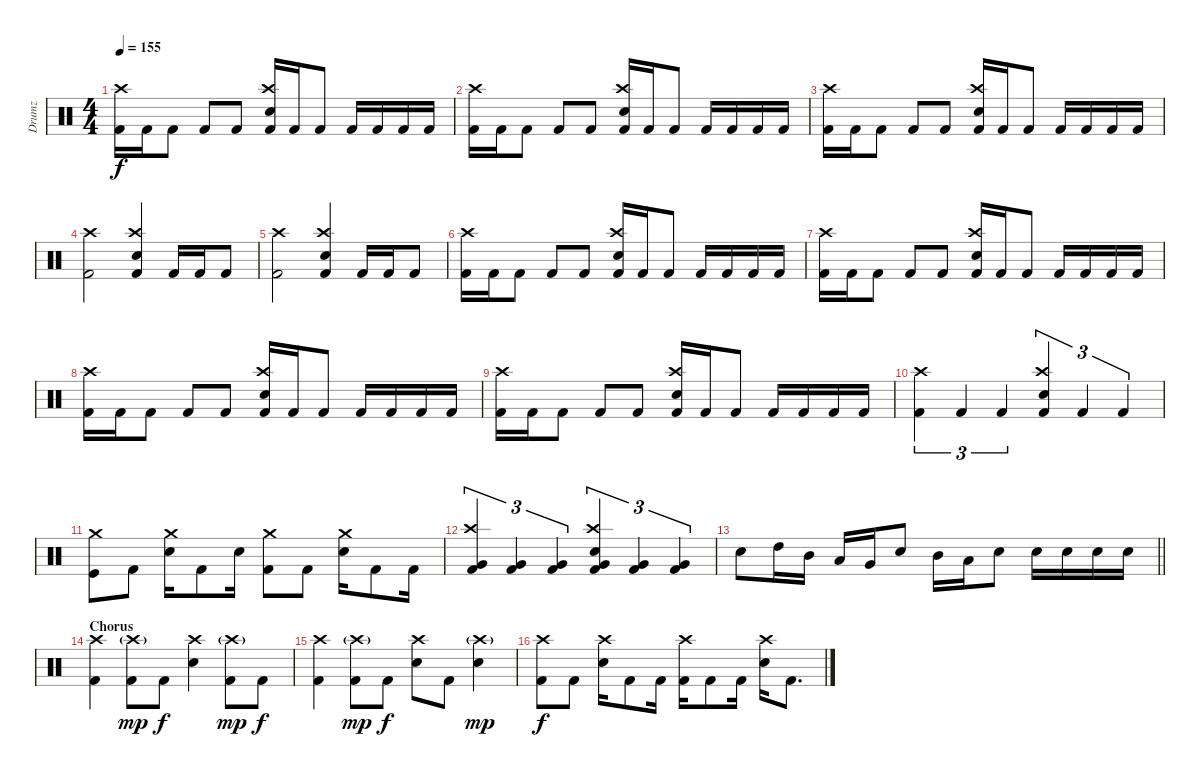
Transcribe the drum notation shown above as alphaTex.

\track ("Drumz" "Drumz") {instrument percussion}
\staff {score}
\articulation defaults
\ts (4 4)
\tempo 155
\clef neutral
\ks c
("Kick (hit) 2" "Crash high (hit)").16{dy f} "Kick (hit) 2".16 "Kick (hit) 2".8 "Kick (hit) 2".8 "Kick (hit) 2".8 ("Kick (hit) 2" "Crash high (hit)" "Electric Snare (hit)").16 "Kick (hit) 2".16 "Kick (hit) 2".8 "Kick (hit) 2".16 "Kick (hit) 2".16 "Kick (hit) 2".16 "Kick (hit) 2".16 |
("Kick (hit) 2" "Crash high (hit)").16 "Kick (hit) 2".16 "Kick (hit) 2".8 "Kick (hit) 2".8 "Kick (hit) 2".8 ("Kick (hit) 2" "Crash high (hit)" "Electric Snare (hit)").16 "Kick (hit) 2".16 "Kick (hit) 2".8 "Kick (hit) 2".16 "Kick (hit) 2".16 "Kick (hit) 2".16 "Kick (hit) 2".16 |
("Kick (hit) 2" "Crash high (hit)").16 "Kick (hit) 2".16 "Kick (hit) 2".8 "Kick (hit) 2".8 "Kick (hit) 2".8 ("Kick (hit) 2" "Crash high (hit)" "Electric Snare (hit)").16 "Kick (hit) 2".16 "Kick (hit) 2".8 "Kick (hit) 2".16 "Kick (hit) 2".16 "Kick (hit) 2".16 "Kick (hit) 2".16 |
("Kick (hit) 2" "Crash high (hit)").2 ("Kick (hit) 2" "Crash high (hit)" "Electric Snare (hit)").4 "Kick (hit) 2".16 "Kick (hit) 2".16 "Kick (hit) 2".8 |
("Kick (hit) 2" "Crash high (hit)").2 ("Kick (hit) 2" "Crash high (hit)" "Electric Snare (hit)").4 "Kick (hit) 2".16 "Kick (hit) 2".16 "Kick (hit) 2".8 |
("Kick (hit) 2" "Crash high (hit)").16 "Kick (hit) 2".16 "Kick (hit) 2".8 "Kick (hit) 2".8 "Kick (hit) 2".8 ("Kick (hit) 2" "Crash high (hit)" "Electric Snare (hit)").16 "Kick (hit) 2".16 "Kick (hit) 2".8 "Kick (hit) 2".16 "Kick (hit) 2".16 "Kick (hit) 2".16 "Kick (hit) 2".16 |
("Kick (hit) 2" "Crash high (hit)").16 "Kick (hit) 2".16 "Kick (hit) 2".8 "Kick (hit) 2".8 "Kick (hit) 2".8 ("Kick (hit) 2" "Crash high (hit)" "Electric Snare (hit)").16 "Kick (hit) 2".16 "Kick (hit) 2".8 "Kick (hit) 2".16 "Kick (hit) 2".16 "Kick (hit) 2".16 "Kick (hit) 2".16 |
("Kick (hit) 2" "Crash high (hit)").16 "Kick (hit) 2".16 "Kick (hit) 2".8 "Kick (hit) 2".8 "Kick (hit) 2".8 ("Kick (hit) 2" "Crash high (hit)" "Electric Snare (hit)").16 "Kick (hit) 2".16 "Kick (hit) 2".8 "Kick (hit) 2".16 "Kick (hit) 2".16 "Kick (hit) 2".16 "Kick (hit) 2".16 |
("Kick (hit) 2" "Crash high (hit)").16 "Kick (hit) 2".16 "Kick (hit) 2".8 "Kick (hit) 2".8 "Kick (hit) 2".8 ("Kick (hit) 2" "Crash high (hit)" "Electric Snare (hit)").16 "Kick (hit) 2".16 "Kick (hit) 2".8 "Kick (hit) 2".16 "Kick (hit) 2".16 "Kick (hit) 2".16 "Kick (hit) 2".16 |
("Crash high (hit)" "Kick (hit) 2").4{tu (3 2)} "Kick (hit) 2".4{tu (3 2)} "Kick (hit) 2".4{tu (3 2)} ("Crash high (hit)" "Kick (hit) 2" "Electric Snare (hit)").4{tu (3 2)} "Kick (hit) 2".4{tu (3 2)} "Kick (hit) 2".4{tu (3 2)} |
("Kick (hit)" "Crash medium (hit)").8 "Kick (hit) 2".8 ("Electric Snare (hit)" "Crash medium (hit)").16 "Kick (hit) 2".8 "Electric Snare (hit)".16 ("Crash medium (hit)" "Kick (hit) 2").8 "Kick (hit) 2".8 ("Crash medium (hit)" "Electric Snare (hit)").16 "Kick (hit) 2".8 "Kick (hit) 2".16 |
("Crash high (hit)" "Kick (hit) 2" "Very Low Tom (hit)").4{tu (3 2)} ("Kick (hit) 2" "Very Low Tom (hit)").4{tu (3 2)} ("Kick (hit) 2" "Very Low Tom (hit)").4{tu (3 2)} ("Crash high (hit)" "Kick (hit) 2" "Electric Snare (hit)" "Very Low Tom (hit)").4{tu (3 2)} ("Kick (hit) 2" "Very Low Tom (hit)").4{tu (3 2)} ("Kick (hit) 2" "Very Low Tom (hit)").4{tu (3 2)} |
\barLineRight lightlight "Electric Snare (hit)".8 "High Tom (hit)".16 "Mid Tom (hit)".16 "Low Tom (hit)".16 "Very Low Tom (hit)".16 "Electric Snare (hit)".8 "Mid Tom (hit)".16 "Low Tom (hit)".16 "Electric Snare (hit)".8 "Electric Snare (hit)".16 "Electric Snare (hit)".16 "Electric Snare (hit)".16 "Electric Snare (hit)".16
|
\section ("" "Chorus")
("Kick (hit) 2" "Crash high (hit)").4 ("Kick (hit) 2" "Crash high (hit)"{g}).8{dy mp} "Kick (hit) 2".8{dy f} ("Crash high (hit)" "Electric Snare (hit)").4 ("Kick (hit) 2" "Crash high (hit)"{g}).8{dy mp} "Kick (hit) 2".8{dy f} |
("Kick (hit) 2" "Crash high (hit)").4 ("Kick (hit) 2" "Crash high (hit)"{g}).8{dy mp} "Kick (hit) 2".8{dy f} ("Crash high (hit)" "Electric Snare (hit)").8 "Kick (hit) 2".8 ("Electric Snare (hit)" "Crash high (hit)"{g}).4{dy mp} |
("Kick (hit) 2" "Crash high (hit)").8{dy f} "Kick (hit) 2".8 ("Crash high (hit)" "Electric Snare (hit)").16 "Kick (hit) 2".8 "Kick (hit) 2".16 ("Kick (hit) 2" "Crash high (hit)").16 "Kick (hit) 2".8 "Kick (hit) 2".16 ("Crash high (hit)" "Electric Snare (hit)").16 "Kick (hit) 2".8{d}
